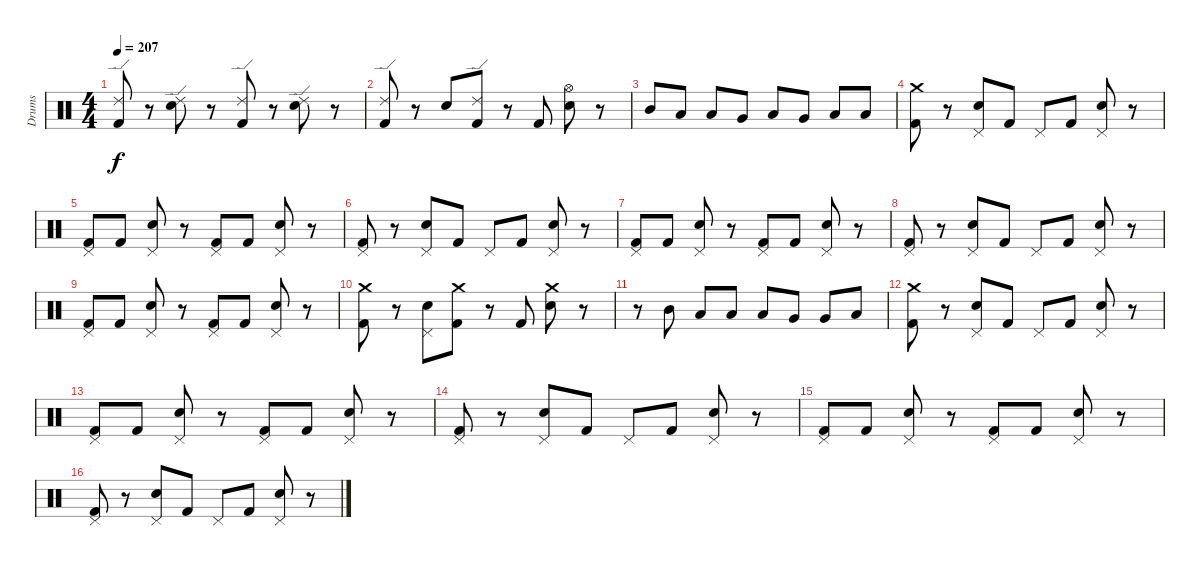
\track ("Drums" "Drums") {instrument percussion}
\staff {score}
\articulation defaults
\ts (4 4)
\tempo 207
\clef neutral
\ks c
("Ride (edge) 2" "Kick (hit) 2").8{dy f} r.8 ("Ride (edge) 2" "Snare (hit) 2").8 r.8 ("Ride (edge) 2" "Kick (hit) 2").8 r.8 ("Ride (edge) 2" "Snare (hit) 2").8 r.8 |
("Ride (edge) 2" "Kick (hit) 2").8 r.8 "Snare (hit) 2".8 ("Ride (edge) 2" "Kick (hit) 2").8 r.8 "Kick (hit) 2".8 ("Hi-Hat (open)" "Snare (hit) 2").8 r.8 |
"Mid Tom (hit)".8 "Low Tom (hit)".8 "Low Tom (hit)".8 "Very Low Tom (hit)".8 "Low Tom (hit)".8 "Very Low Tom (hit)".8 "Low Floor Tom (hit)".8 "Low Floor Tom (hit)".8 |
("Crash medium (hit)" "Kick (hit) 2").8 r.8 ("Pedal Hi-Hat (hit)" "Snare (hit) 2").8 "Kick (hit) 2".8 "Pedal Hi-Hat (hit)".8 "Kick (hit) 2".8 ("Pedal Hi-Hat (hit)" "Snare (hit) 2").8 r.8 |
("Pedal Hi-Hat (hit)" "Kick (hit) 2").8 "Kick (hit) 2".8 ("Pedal Hi-Hat (hit)" "Snare (hit) 2").8 r.8 ("Pedal Hi-Hat (hit)" "Kick (hit) 2").8 "Kick (hit) 2".8 ("Pedal Hi-Hat (hit)" "Snare (hit) 2").8 r.8 |
("Pedal Hi-Hat (hit)" "Kick (hit) 2").8 r.8 ("Pedal Hi-Hat (hit)" "Snare (hit) 2").8 "Kick (hit) 2".8 "Pedal Hi-Hat (hit)".8 "Kick (hit) 2".8 ("Pedal Hi-Hat (hit)" "Snare (hit) 2").8 r.8 |
("Pedal Hi-Hat (hit)" "Kick (hit) 2").8 "Kick (hit) 2".8 ("Pedal Hi-Hat (hit)" "Snare (hit) 2").8 r.8 ("Pedal Hi-Hat (hit)" "Kick (hit) 2").8 "Kick (hit) 2".8 ("Pedal Hi-Hat (hit)" "Snare (hit) 2").8 r.8 |
("Pedal Hi-Hat (hit)" "Kick (hit) 2").8 r.8 ("Pedal Hi-Hat (hit)" "Snare (hit) 2").8 "Kick (hit) 2".8 "Pedal Hi-Hat (hit)".8 "Kick (hit) 2".8 ("Pedal Hi-Hat (hit)" "Snare (hit) 2").8 r.8 |
("Pedal Hi-Hat (hit)" "Kick (hit) 2").8 "Kick (hit) 2".8 ("Pedal Hi-Hat (hit)" "Snare (hit) 2").8 r.8 ("Pedal Hi-Hat (hit)" "Kick (hit) 2").8 "Kick (hit) 2".8 ("Pedal Hi-Hat (hit)" "Snare (hit) 2").8 r.8 |
("Crash medium (hit)" "Kick (hit) 2").8 r.8 ("Pedal Hi-Hat (hit)" "Snare (hit) 2").8 ("Crash medium (hit)" "Kick (hit) 2").8 r.8 "Kick (hit) 2".8 ("Crash medium (hit)" "Snare (hit) 2").8 r.8 |
r.8 "Mid Tom (hit)".8 "Low Tom (hit)".8 "Low Tom (hit)".8 "Low Tom (hit)".8 "Very Low Tom (hit)".8 "Very Low Tom (hit)".8 "Low Floor Tom (hit)".8 |
("Crash medium (hit)" "Kick (hit) 2").8 r.8 ("Pedal Hi-Hat (hit)" "Snare (hit) 2").8 "Kick (hit) 2".8 "Pedal Hi-Hat (hit)".8 "Kick (hit) 2".8 ("Pedal Hi-Hat (hit)" "Snare (hit) 2").8 r.8 |
("Pedal Hi-Hat (hit)" "Kick (hit) 2").8 "Kick (hit) 2".8 ("Pedal Hi-Hat (hit)" "Snare (hit) 2").8 r.8 ("Pedal Hi-Hat (hit)" "Kick (hit) 2").8 "Kick (hit) 2".8 ("Pedal Hi-Hat (hit)" "Snare (hit) 2").8 r.8 |
("Pedal Hi-Hat (hit)" "Kick (hit) 2").8 r.8 ("Pedal Hi-Hat (hit)" "Snare (hit) 2").8 "Kick (hit) 2".8 "Pedal Hi-Hat (hit)".8 "Kick (hit) 2".8 ("Pedal Hi-Hat (hit)" "Snare (hit) 2").8 r.8 |
("Pedal Hi-Hat (hit)" "Kick (hit) 2").8 "Kick (hit) 2".8 ("Pedal Hi-Hat (hit)" "Snare (hit) 2").8 r.8 ("Pedal Hi-Hat (hit)" "Kick (hit) 2").8 "Kick (hit) 2".8 ("Pedal Hi-Hat (hit)" "Snare (hit) 2").8 r.8 |
("Pedal Hi-Hat (hit)" "Kick (hit) 2").8 r.8 ("Pedal Hi-Hat (hit)" "Snare (hit) 2").8 "Kick (hit) 2".8 "Pedal Hi-Hat (hit)".8 "Kick (hit) 2".8 ("Pedal Hi-Hat (hit)" "Snare (hit) 2").8 r.8
